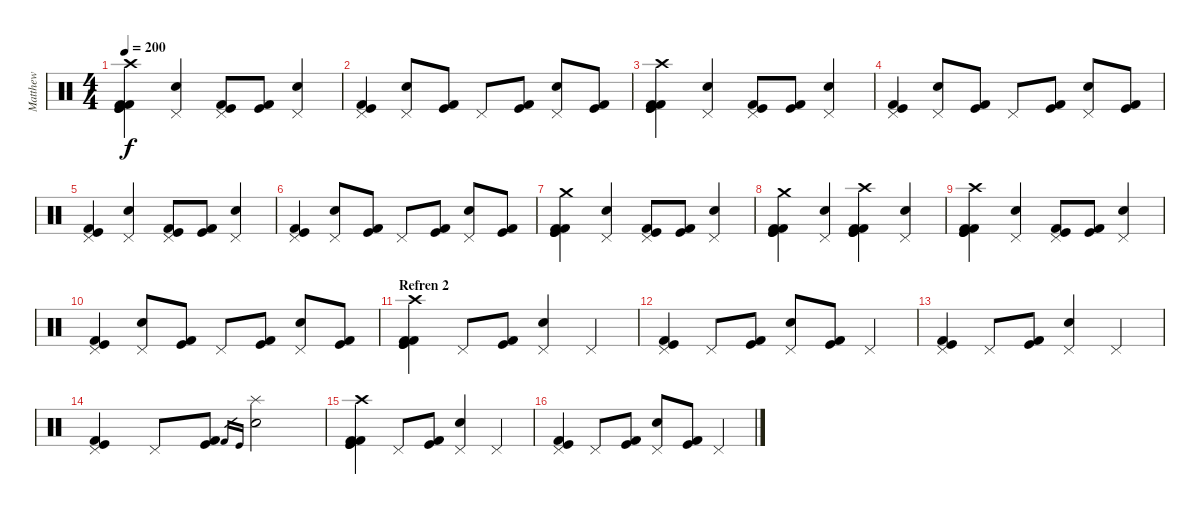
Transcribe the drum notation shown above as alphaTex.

\track ("Matthew" "Matthew") {instrument percussion}
\staff {score}
\articulation defaults
\ts (4 4)
\tempo 200
\clef neutral
\ks c
("Kick (hit)" "Kick (hit) 2" "Kick (hit)" "Kick (hit) 2" "Crash high (hit)").4{dy f} ("Snare (hit) 2" "Pedal Hi-Hat (hit)").4 ("Kick (hit) 2" "Pedal Hi-Hat (hit)" "Kick (hit)").8 ("Kick (hit)" "Kick (hit) 2").8 ("Snare (hit) 2" "Pedal Hi-Hat (hit)").4 |
("Kick (hit) 2" "Kick (hit)" "Pedal Hi-Hat (hit)").4 ("Snare (hit) 2" "Pedal Hi-Hat (hit)").8 ("Kick (hit) 2" "Kick (hit)").8 "Pedal Hi-Hat (hit)".8 ("Kick (hit) 2" "Kick (hit)").8 ("Snare (hit) 2" "Pedal Hi-Hat (hit)").8 ("Kick (hit)" "Kick (hit) 2").8 |
("Kick (hit)" "Kick (hit) 2" "Kick (hit)" "Kick (hit) 2" "Crash high (hit)").4 ("Snare (hit) 2" "Pedal Hi-Hat (hit)").4 ("Kick (hit) 2" "Pedal Hi-Hat (hit)" "Kick (hit)").8 ("Kick (hit)" "Kick (hit) 2").8 ("Snare (hit) 2" "Pedal Hi-Hat (hit)").4 |
("Kick (hit) 2" "Kick (hit)" "Pedal Hi-Hat (hit)").4 ("Snare (hit) 2" "Pedal Hi-Hat (hit)").8 ("Kick (hit) 2" "Kick (hit)").8 "Pedal Hi-Hat (hit)".8 ("Kick (hit) 2" "Kick (hit)").8 ("Snare (hit) 2" "Pedal Hi-Hat (hit)").8 ("Kick (hit)" "Kick (hit) 2").8 |
("Kick (hit)" "Kick (hit) 2" "Pedal Hi-Hat (hit)").4 ("Snare (hit) 2" "Pedal Hi-Hat (hit)").4 ("Kick (hit) 2" "Pedal Hi-Hat (hit)" "Kick (hit)").8 ("Kick (hit)" "Kick (hit) 2").8 ("Snare (hit) 2" "Pedal Hi-Hat (hit)").4 |
("Kick (hit) 2" "Kick (hit)" "Pedal Hi-Hat (hit)").4 ("Snare (hit) 2" "Pedal Hi-Hat (hit)").8 ("Kick (hit) 2" "Kick (hit)").8 "Pedal Hi-Hat (hit)".8 ("Kick (hit) 2" "Kick (hit)").8 ("Snare (hit) 2" "Pedal Hi-Hat (hit)").8 ("Kick (hit)" "Kick (hit) 2").8 |
("Kick (hit)" "Kick (hit) 2" "Kick (hit)" "Kick (hit) 2" "Crash medium (hit)").4 ("Snare (hit) 2" "Pedal Hi-Hat (hit)").4 ("Kick (hit) 2" "Pedal Hi-Hat (hit)" "Kick (hit)").8 ("Kick (hit)" "Kick (hit) 2").8 ("Snare (hit) 2" "Pedal Hi-Hat (hit)").4 |
("Kick (hit)" "Kick (hit) 2" "Kick (hit)" "Kick (hit) 2" "Crash medium (hit)").4 ("Snare (hit) 2" "Pedal Hi-Hat (hit)").4 ("Kick (hit) 2" "Crash high (hit)" "Kick (hit)" "Kick (hit) 2" "Kick (hit)").4 ("Snare (hit) 2" "Pedal Hi-Hat (hit)").4 |
("Kick (hit)" "Kick (hit) 2" "Kick (hit)" "Kick (hit) 2" "Crash high (hit)").4 ("Snare (hit) 2" "Pedal Hi-Hat (hit)").4 ("Kick (hit) 2" "Pedal Hi-Hat (hit)" "Kick (hit)").8 ("Kick (hit)" "Kick (hit) 2").8 ("Snare (hit) 2" "Pedal Hi-Hat (hit)").4 |
("Kick (hit) 2" "Kick (hit)" "Pedal Hi-Hat (hit)").4 ("Snare (hit) 2" "Pedal Hi-Hat (hit)").8 ("Kick (hit) 2" "Kick (hit)").8 "Pedal Hi-Hat (hit)".8 ("Kick (hit) 2" "Kick (hit)").8 ("Snare (hit) 2" "Pedal Hi-Hat (hit)").8 ("Kick (hit)" "Kick (hit) 2").8 |
\section ("" "Refren 2")
("Kick (hit) 2" "Kick (hit)" "Kick (hit) 2" "Kick (hit)" "Crash high (hit)").4 "Pedal Hi-Hat (hit)".8 ("Kick (hit) 2" "Kick (hit)").8 ("Pedal Hi-Hat (hit)" "Snare (hit) 2").4 "Pedal Hi-Hat (hit)".4 |
("Kick (hit) 2" "Kick (hit)" "Pedal Hi-Hat (hit)").4 "Pedal Hi-Hat (hit)".8 ("Kick (hit) 2" "Kick (hit)").8 ("Pedal Hi-Hat (hit)" "Snare (hit) 2").8 ("Kick (hit) 2" "Kick (hit)").8 "Pedal Hi-Hat (hit)".4 |
("Kick (hit) 2" "Kick (hit)" "Pedal Hi-Hat (hit)").4 "Pedal Hi-Hat (hit)".8 ("Kick (hit) 2" "Kick (hit)").8 ("Pedal Hi-Hat (hit)" "Snare (hit) 2").4 "Pedal Hi-Hat (hit)".4 |
("Kick (hit) 2" "Kick (hit)" "Pedal Hi-Hat (hit)").4 "Pedal Hi-Hat (hit)".8 ("Kick (hit) 2" "Kick (hit)").8 "Kick (hit) 2".16{gr} "Kick (hit)".16{gr} ("Snare (hit) 2" "Splash (hit)").2 |
("Kick (hit) 2" "Kick (hit)" "Kick (hit) 2" "Kick (hit)" "Crash high (hit)").4 "Pedal Hi-Hat (hit)".8 ("Kick (hit) 2" "Kick (hit)").8 ("Pedal Hi-Hat (hit)" "Snare (hit) 2").4 "Pedal Hi-Hat (hit)".4 |
("Kick (hit) 2" "Kick (hit)" "Pedal Hi-Hat (hit)").4 "Pedal Hi-Hat (hit)".8 ("Kick (hit) 2" "Kick (hit)").8 ("Pedal Hi-Hat (hit)" "Snare (hit) 2").8 ("Kick (hit) 2" "Kick (hit)").8 "Pedal Hi-Hat (hit)".4
